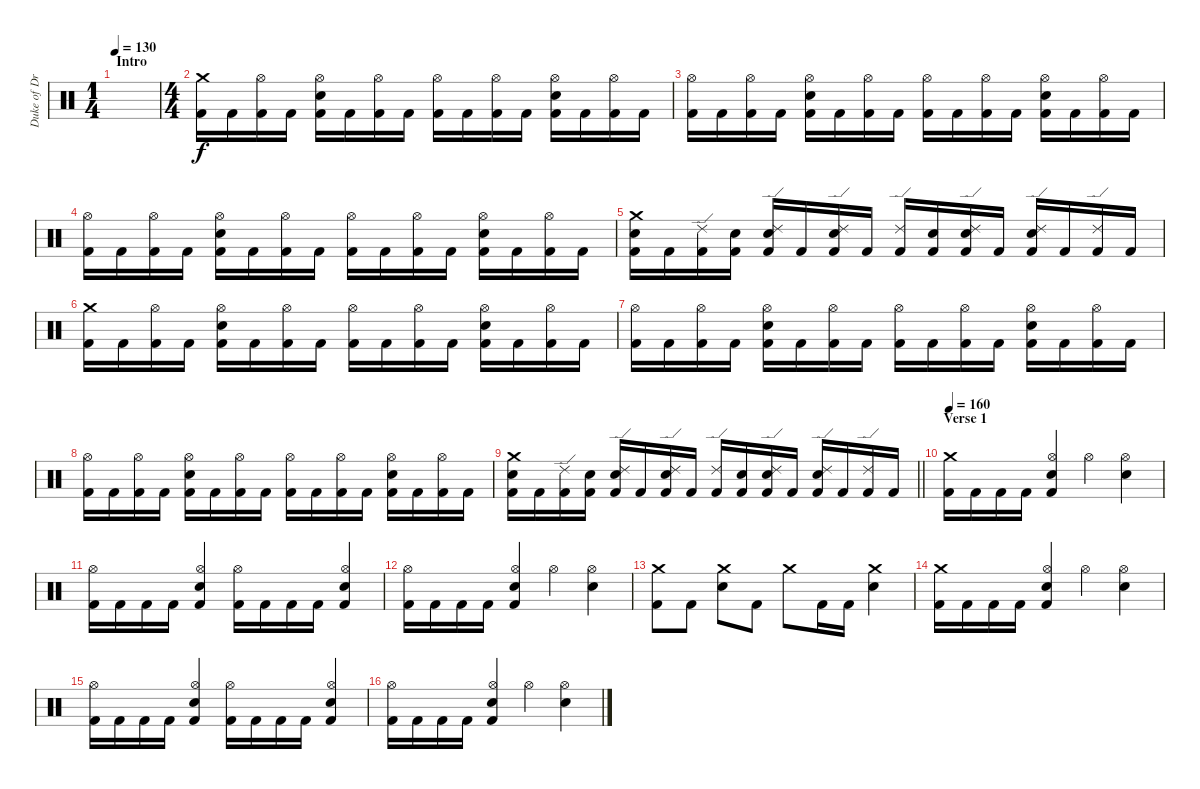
\track ("Duke of Drumington" "Duke of Dr") {instrument percussion}
\staff {score}
\articulation defaults
\ts (1 4)
\section ("" "Intro")
\tempo 130
\clef neutral
\ks c
|
\ts (4 4)
("Crash medium (hit)" "Kick (hit) 2").16 "Kick (hit) 2".16 ("Hi-Hat (open)" "Kick (hit) 2").16 "Kick (hit) 2".16 ("Hi-Hat (open)" "Electric Snare (hit)" "Kick (hit) 2").16 "Kick (hit) 2".16 ("Hi-Hat (open)" "Kick (hit) 2").16 "Kick (hit) 2".16 ("Hi-Hat (open)" "Kick (hit) 2").16 "Kick (hit) 2".16 ("Hi-Hat (open)" "Kick (hit) 2").16 "Kick (hit) 2".16 ("Hi-Hat (open)" "Electric Snare (hit)" "Kick (hit) 2").16 "Kick (hit) 2".16 ("Hi-Hat (open)" "Kick (hit) 2").16 "Kick (hit) 2".16 |
("Hi-Hat (open)" "Kick (hit) 2").16 "Kick (hit) 2".16 ("Hi-Hat (open)" "Kick (hit) 2").16 "Kick (hit) 2".16 ("Hi-Hat (open)" "Electric Snare (hit)" "Kick (hit) 2").16 "Kick (hit) 2".16 ("Hi-Hat (open)" "Kick (hit) 2").16 "Kick (hit) 2".16 ("Hi-Hat (open)" "Kick (hit) 2").16 "Kick (hit) 2".16 ("Hi-Hat (open)" "Kick (hit) 2").16 "Kick (hit) 2".16 ("Hi-Hat (open)" "Electric Snare (hit)" "Kick (hit) 2").16 "Kick (hit) 2".16 ("Hi-Hat (open)" "Kick (hit) 2").16 "Kick (hit) 2".16 |
("Hi-Hat (open)" "Kick (hit) 2").16 "Kick (hit) 2".16 ("Hi-Hat (open)" "Kick (hit) 2").16 "Kick (hit) 2".16 ("Hi-Hat (open)" "Electric Snare (hit)" "Kick (hit) 2").16 "Kick (hit) 2".16 ("Hi-Hat (open)" "Kick (hit) 2").16 "Kick (hit) 2".16 ("Hi-Hat (open)" "Kick (hit) 2").16 "Kick (hit) 2".16 ("Hi-Hat (open)" "Kick (hit) 2").16 "Kick (hit) 2".16 ("Hi-Hat (open)" "Electric Snare (hit)" "Kick (hit) 2").16 "Kick (hit) 2".16 ("Hi-Hat (open)" "Kick (hit) 2").16 "Kick (hit) 2".16 |
("Crash medium (hit)" "Electric Snare (hit)" "Kick (hit) 2").16 "Kick (hit) 2".16 ("Ride (edge) 2" "Kick (hit) 2").16 ("Electric Snare (hit)" "Kick (hit) 2").16 ("Ride (edge) 2" "Electric Snare (hit)" "Kick (hit) 2").16 "Kick (hit) 2".16 ("Ride (edge) 2" "Electric Snare (hit)" "Kick (hit) 2").16 "Kick (hit) 2".16 ("Ride (edge) 2" "Kick (hit) 2").16 ("Electric Snare (hit)" "Kick (hit) 2").16 ("Ride (edge) 2" "Electric Snare (hit)" "Kick (hit) 2").16 "Kick (hit) 2".16 ("Ride (edge) 2" "Electric Snare (hit)" "Kick (hit) 2").16 "Kick (hit) 2".16 ("Ride (edge) 2" "Kick (hit) 2").16 "Kick (hit) 2".16 |
("Crash medium (hit)" "Kick (hit) 2").16 "Kick (hit) 2".16 ("Hi-Hat (open)" "Kick (hit) 2").16 "Kick (hit) 2".16 ("Hi-Hat (open)" "Electric Snare (hit)" "Kick (hit) 2").16 "Kick (hit) 2".16 ("Hi-Hat (open)" "Kick (hit) 2").16 "Kick (hit) 2".16 ("Hi-Hat (open)" "Kick (hit) 2").16 "Kick (hit) 2".16 ("Hi-Hat (open)" "Kick (hit) 2").16 "Kick (hit) 2".16 ("Hi-Hat (open)" "Electric Snare (hit)" "Kick (hit) 2").16 "Kick (hit) 2".16 ("Hi-Hat (open)" "Kick (hit) 2").16 "Kick (hit) 2".16 |
("Hi-Hat (open)" "Kick (hit) 2").16 "Kick (hit) 2".16 ("Hi-Hat (open)" "Kick (hit) 2").16 "Kick (hit) 2".16 ("Hi-Hat (open)" "Electric Snare (hit)" "Kick (hit) 2").16 "Kick (hit) 2".16 ("Hi-Hat (open)" "Kick (hit) 2").16 "Kick (hit) 2".16 ("Hi-Hat (open)" "Kick (hit) 2").16 "Kick (hit) 2".16 ("Hi-Hat (open)" "Kick (hit) 2").16 "Kick (hit) 2".16 ("Hi-Hat (open)" "Electric Snare (hit)" "Kick (hit) 2").16 "Kick (hit) 2".16 ("Hi-Hat (open)" "Kick (hit) 2").16 "Kick (hit) 2".16 |
("Hi-Hat (open)" "Kick (hit) 2").16 "Kick (hit) 2".16 ("Hi-Hat (open)" "Kick (hit) 2").16 "Kick (hit) 2".16 ("Hi-Hat (open)" "Electric Snare (hit)" "Kick (hit) 2").16 "Kick (hit) 2".16 ("Hi-Hat (open)" "Kick (hit) 2").16 "Kick (hit) 2".16 ("Hi-Hat (open)" "Kick (hit) 2").16 "Kick (hit) 2".16 ("Hi-Hat (open)" "Kick (hit) 2").16 "Kick (hit) 2".16 ("Hi-Hat (open)" "Electric Snare (hit)" "Kick (hit) 2").16 "Kick (hit) 2".16 ("Hi-Hat (open)" "Kick (hit) 2").16 "Kick (hit) 2".16 |
\barLineRight lightlight
("Crash medium (hit)" "Electric Snare (hit)" "Kick (hit) 2").16 "Kick (hit) 2".16 ("Ride (edge) 2" "Kick (hit) 2").16 ("Electric Snare (hit)" "Kick (hit) 2").16 ("Ride (edge) 2" "Electric Snare (hit)" "Kick (hit) 2").16 "Kick (hit) 2".16 ("Ride (edge) 2" "Electric Snare (hit)" "Kick (hit) 2").16 "Kick (hit) 2".16 ("Ride (edge) 2" "Kick (hit) 2").16 ("Electric Snare (hit)" "Kick (hit) 2").16 ("Ride (edge) 2" "Electric Snare (hit)" "Kick (hit) 2").16 "Kick (hit) 2".16 ("Ride (edge) 2" "Electric Snare (hit)" "Kick (hit) 2").16 "Kick (hit) 2".16 ("Ride (edge) 2" "Kick (hit) 2").16 "Kick (hit) 2".16 |
\section ("" "Verse 1")
\tempo 160
("Crash medium (hit)" "Kick (hit) 2").16 "Kick (hit) 2".16 "Kick (hit) 2".16 "Kick (hit) 2".16 ("Hi-Hat (open)" "Electric Snare (hit)" "Kick (hit) 2").4 "Hi-Hat (open)".4 ("Hi-Hat (open)" "Electric Snare (hit)").4 |
("Hi-Hat (open)" "Kick (hit) 2").16 "Kick (hit) 2".16 "Kick (hit) 2".16 "Kick (hit) 2".16 ("Hi-Hat (open)" "Electric Snare (hit)" "Kick (hit) 2").4 ("Hi-Hat (open)" "Kick (hit) 2").16 "Kick (hit) 2".16 "Kick (hit) 2".16 "Kick (hit) 2".16 ("Hi-Hat (open)" "Electric Snare (hit)" "Kick (hit) 2").4 |
("Hi-Hat (open)" "Kick (hit) 2").16 "Kick (hit) 2".16 "Kick (hit) 2".16 "Kick (hit) 2".16 ("Hi-Hat (open)" "Electric Snare (hit)" "Kick (hit) 2").4 "Hi-Hat (open)".4 ("Hi-Hat (open)" "Electric Snare (hit)").4 |
("Crash medium (hit)" "Kick (hit) 2").8 "Kick (hit) 2".8 ("Crash medium (hit)" "Electric Snare (hit)").8 "Kick (hit) 2".8 "Crash medium (hit)".8 "Kick (hit) 2".16 "Kick (hit) 2".16 ("Crash medium (hit)" "Electric Snare (hit)").4 |
("Crash medium (hit)" "Kick (hit) 2").16 "Kick (hit) 2".16 "Kick (hit) 2".16 "Kick (hit) 2".16 ("Hi-Hat (open)" "Electric Snare (hit)" "Kick (hit) 2").4 "Hi-Hat (open)".4 ("Hi-Hat (open)" "Electric Snare (hit)").4 |
("Hi-Hat (open)" "Kick (hit) 2").16 "Kick (hit) 2".16 "Kick (hit) 2".16 "Kick (hit) 2".16 ("Hi-Hat (open)" "Electric Snare (hit)" "Kick (hit) 2").4 ("Hi-Hat (open)" "Kick (hit) 2").16 "Kick (hit) 2".16 "Kick (hit) 2".16 "Kick (hit) 2".16 ("Hi-Hat (open)" "Electric Snare (hit)" "Kick (hit) 2").4 |
("Hi-Hat (open)" "Kick (hit) 2").16 "Kick (hit) 2".16 "Kick (hit) 2".16 "Kick (hit) 2".16 ("Hi-Hat (open)" "Electric Snare (hit)" "Kick (hit) 2").4 "Hi-Hat (open)".4 ("Hi-Hat (open)" "Electric Snare (hit)").4
